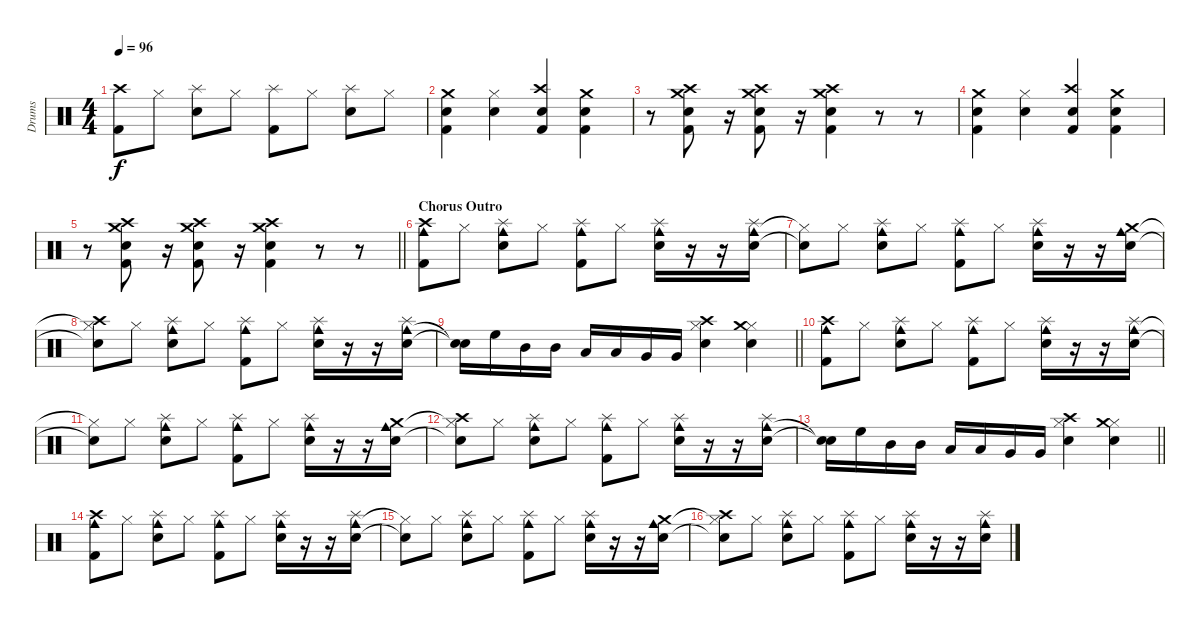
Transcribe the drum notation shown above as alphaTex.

\track ("Drums" "Drums") {instrument percussion}
\staff {score}
\articulation defaults
\ts (4 4)
\tempo 96
\clef neutral
\ks c
("Kick (hit) 2" "Crash high (hit)").8{dy f} "Hi-Hat (closed)".8 ("Snare (hit) 2" "Splash (hit)").8 "Hi-Hat (closed)".8 ("Kick (hit) 2" "Splash (hit)").8 "Hi-Hat (closed)".8 ("Snare (hit) 2" "Splash (hit)").8 "Hi-Hat (closed)".8 |
("Snare (hit) 2" "Kick (hit) 2" "Crash medium (hit)").4 ("Snare (hit) 2" "Hi-Hat (closed)").4 ("Snare (hit) 2" "Kick (hit) 2" "Crash high (hit)").4 ("Snare (hit) 2" "Kick (hit) 2" "Crash medium (hit)").4 |
r.8 ("Snare (hit) 2" "Kick (hit) 2" "Crash high (hit)" "Crash medium (hit)").8 r.16 ("Snare (hit) 2" "Kick (hit) 2" "Crash high (hit)" "Crash medium (hit)").8 r.16 ("Snare (hit) 2" "Kick (hit) 2" "Crash high (hit)" "Crash medium (hit)").4 r.8 r.8 |
("Snare (hit) 2" "Kick (hit) 2" "Crash medium (hit)").4 ("Snare (hit) 2" "Hi-Hat (closed)").4 ("Snare (hit) 2" "Kick (hit) 2" "Crash high (hit)").4 ("Snare (hit) 2" "Kick (hit) 2" "Crash medium (hit)").4 |
\barLineRight lightlight
r.8 ("Snare (hit) 2" "Kick (hit) 2" "Crash high (hit)" "Crash medium (hit)").8 r.16 ("Snare (hit) 2" "Kick (hit) 2" "Crash high (hit)" "Crash medium (hit)").8 r.16 ("Snare (hit) 2" "Kick (hit) 2" "Crash high (hit)" "Crash medium (hit)").4 r.8 r.8 |
\section ("" "Chorus Outro")
("Kick (hit) 2" "Cowbell medium (hit)" "Crash high (hit)").8 "Hi-Hat (closed)".8 ("Snare (hit) 2" "Cowbell medium (hit)" "Splash (hit)").8 "Hi-Hat (closed)".8 ("Kick (hit) 2" "Cowbell medium (hit)" "Splash (hit)").8 "Hi-Hat (closed)".8 ("Snare (hit) 2" "Cowbell medium (hit)" "Splash (hit)").16 r.16 r.16 ("Snare (hit) 2" "Cowbell medium (hit)" "Splash (hit)").16 |
("Snare (hit) 2"{t} "Hi-Hat (closed)"{t}).8 "Hi-Hat (closed)".8 ("Snare (hit) 2" "Cowbell medium (hit)" "Splash (hit)").8 "Hi-Hat (closed)".8 ("Kick (hit) 2" "Cowbell medium (hit)" "Splash (hit)").8 "Hi-Hat (closed)".8 ("Snare (hit) 2" "Cowbell medium (hit)" "Splash (hit)").16 r.16 r.16 ("Snare (hit) 2" "Cowbell medium (hit)" "Crash medium (hit)").16 |
("Snare (hit) 2"{t} "Hi-Hat (closed)"{t} "Crash high (hit)").8 "Hi-Hat (closed)".8 ("Snare (hit) 2" "Cowbell medium (hit)" "Splash (hit)").8 "Hi-Hat (closed)".8 ("Kick (hit) 2" "Cowbell medium (hit)" "Splash (hit)").8 "Hi-Hat (closed)".8 ("Snare (hit) 2" "Cowbell medium (hit)" "Splash (hit)").16 r.16 r.16 ("Snare (hit) 2" "Cowbell medium (hit)" "Splash (hit)").16 |
\barLineRight lightlight
("Snare (hit)"{t} "Snare (hit)"{t}).16 "High Floor Tom (hit)".16 "Mid Tom (hit)".16 "Mid Tom (hit)".16 "Low Tom (hit)".16 "Low Tom (hit)".16 "Very Low Tom (hit)".16 "Very Low Tom (hit)".16 ("Snare (hit) 2" "Hi-Hat (closed)" "Crash high (hit)").4 ("Snare (hit) 2" "Hi-Hat (closed)" "Crash medium (hit)").4 |
("Kick (hit) 2" "Cowbell medium (hit)" "Crash high (hit)").8 "Hi-Hat (closed)".8 ("Snare (hit) 2" "Cowbell medium (hit)" "Splash (hit)").8 "Hi-Hat (closed)".8 ("Kick (hit) 2" "Cowbell medium (hit)" "Splash (hit)").8 "Hi-Hat (closed)".8 ("Snare (hit) 2" "Cowbell medium (hit)" "Splash (hit)").16 r.16 r.16 ("Snare (hit) 2" "Cowbell medium (hit)" "Splash (hit)").16 |
("Snare (hit) 2"{t} "Hi-Hat (closed)"{t}).8 "Hi-Hat (closed)".8 ("Snare (hit) 2" "Cowbell medium (hit)" "Splash (hit)").8 "Hi-Hat (closed)".8 ("Kick (hit) 2" "Cowbell medium (hit)" "Splash (hit)").8 "Hi-Hat (closed)".8 ("Snare (hit) 2" "Cowbell medium (hit)" "Splash (hit)").16 r.16 r.16 ("Snare (hit) 2" "Cowbell medium (hit)" "Crash medium (hit)").16 |
("Snare (hit) 2"{t} "Hi-Hat (closed)"{t} "Crash high (hit)").8 "Hi-Hat (closed)".8 ("Snare (hit) 2" "Cowbell medium (hit)" "Splash (hit)").8 "Hi-Hat (closed)".8 ("Kick (hit) 2" "Cowbell medium (hit)" "Splash (hit)").8 "Hi-Hat (closed)".8 ("Snare (hit) 2" "Cowbell medium (hit)" "Splash (hit)").16 r.16 r.16 ("Snare (hit) 2" "Cowbell medium (hit)" "Splash (hit)").16 |
\barLineRight lightlight
("Snare (hit)"{t} "Snare (hit)"{t}).16 "High Floor Tom (hit)".16 "Mid Tom (hit)".16 "Mid Tom (hit)".16 "Low Tom (hit)".16 "Low Tom (hit)".16 "Very Low Tom (hit)".16 "Very Low Tom (hit)".16 ("Snare (hit) 2" "Hi-Hat (closed)" "Crash high (hit)").4 ("Snare (hit) 2" "Hi-Hat (closed)" "Crash medium (hit)").4 |
("Kick (hit) 2" "Cowbell medium (hit)" "Crash high (hit)").8 "Hi-Hat (closed)".8 ("Snare (hit) 2" "Cowbell medium (hit)" "Splash (hit)").8 "Hi-Hat (closed)".8 ("Kick (hit) 2" "Cowbell medium (hit)" "Splash (hit)").8 "Hi-Hat (closed)".8 ("Snare (hit) 2" "Cowbell medium (hit)" "Splash (hit)").16 r.16 r.16 ("Snare (hit) 2" "Cowbell medium (hit)" "Splash (hit)").16 |
("Snare (hit) 2"{t} "Hi-Hat (closed)"{t}).8 "Hi-Hat (closed)".8 ("Snare (hit) 2" "Cowbell medium (hit)" "Splash (hit)").8 "Hi-Hat (closed)".8 ("Kick (hit) 2" "Cowbell medium (hit)" "Splash (hit)").8 "Hi-Hat (closed)".8 ("Snare (hit) 2" "Cowbell medium (hit)" "Splash (hit)").16 r.16 r.16 ("Snare (hit) 2" "Cowbell medium (hit)" "Crash medium (hit)").16 |
("Snare (hit) 2"{t} "Hi-Hat (closed)"{t} "Crash high (hit)").8 "Hi-Hat (closed)".8 ("Snare (hit) 2" "Cowbell medium (hit)" "Splash (hit)").8 "Hi-Hat (closed)".8 ("Kick (hit) 2" "Cowbell medium (hit)" "Splash (hit)").8 "Hi-Hat (closed)".8 ("Snare (hit) 2" "Cowbell medium (hit)" "Splash (hit)").16 r.16 r.16 ("Snare (hit) 2" "Cowbell medium (hit)" "Splash (hit)").16
